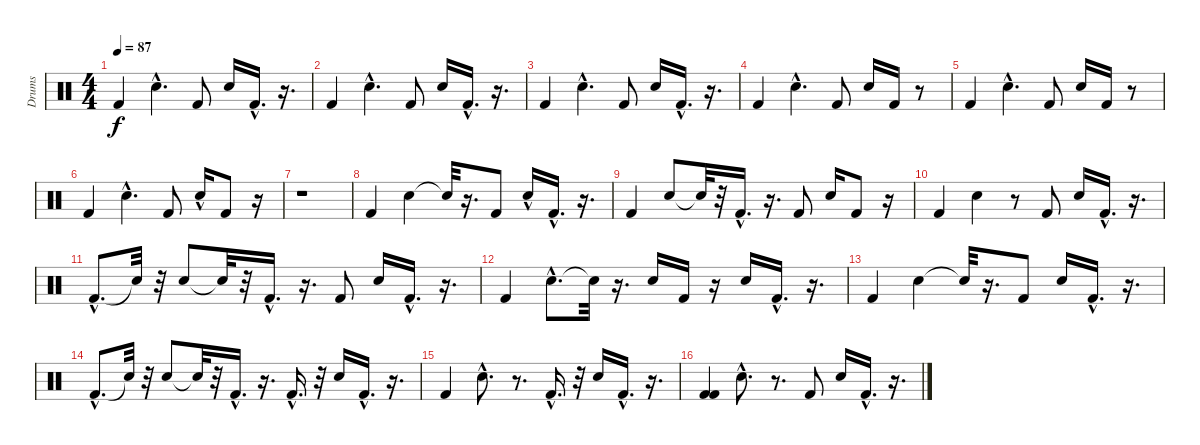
\track ("Drums" "Drums") {instrument percussion}
\staff {score}
\articulation defaults
\ts (4 4)
\tempo 87
\clef neutral
\ks c "Kick (hit) 2".4{dy f} "Electric Snare (hit)"{hac}.4{d} "Kick (hit) 2".8 "Electric Snare (hit)".16 "Kick (hit) 2"{hac}.16{d}
r.16{d} |
"Kick (hit) 2".4 "Electric Snare (hit)"{hac}.4{d} "Kick (hit) 2".8 "Electric Snare (hit)".16 "Kick (hit) 2"{hac}.16{d} r.16{d} |
"Kick (hit) 2".4 "Electric Snare (hit)"{hac}.4{d} "Kick (hit) 2".8 "Electric Snare (hit)".16 "Kick (hit) 2"{hac}.16{d} r.16{d} |
"Kick (hit) 2".4 "Electric Snare (hit)"{hac}.4{d} "Kick (hit) 2".8 "Electric Snare (hit)".16 "Kick (hit) 2".16 r.8 |
"Kick (hit) 2".4 "Electric Snare (hit)"{hac}.4{d} "Kick (hit) 2".8 "Electric Snare (hit)".16 "Kick (hit) 2".16 r.8 |
"Kick (hit) 2".4 "Electric Snare (hit)"{hac}.4{d} "Kick (hit) 2".8 "Electric Snare (hit)"{hac}.16 "Kick (hit) 2".8 r.16 |
r.1 |
"Kick (hit) 2".4 "Electric Snare (hit)".4 "Snare (hit)"{t}.32 r.16{d} "Kick (hit) 2".8 "Electric Snare (hit)"{hac}.16 "Kick (hit) 2"{hac}.16{d} r.16{d} |
"Kick (hit) 2".4 "Electric Snare (hit)".8 "Snare (hit)"{t}.32 r.32 "Kick (hit) 2"{hac}.16{d} r.16{d} "Kick (hit) 2".8 "Electric Snare (hit)".16 "Kick (hit) 2".8 r.16 |
"Kick (hit) 2".4 "Electric Snare (hit)".4 r.8 "Kick (hit) 2".8 "Electric Snare (hit)".16 "Kick (hit) 2"{hac}.16{d} r.16{d} |
"Kick (hit) 2"{hac}.8{d} "Snare (hit)"{t}.32 r.32 "Electric Snare (hit)".8 "Snare (hit)"{t}.32 r.32 "Kick (hit) 2"{hac}.16{d} r.16{d} "Kick (hit) 2".8 "Electric Snare (hit)".16 "Kick (hit) 2"{hac}.16{d} r.16{d} |
"Kick (hit) 2".4 "Electric Snare (hit)"{hac}.8{d} "Snare (hit)"{t}.32 r.16{d} "Electric Snare (hit)".16 "Kick (hit) 2".16 r.16 "Electric Snare (hit)".16 "Kick (hit) 2"{hac}.16{d} r.16{d} |
"Kick (hit) 2".4 "Electric Snare (hit)".4 "Snare (hit)"{t}.32 r.16{d} "Kick (hit) 2".8 "Electric Snare (hit)".16 "Kick (hit) 2"{hac}.16{d} r.16{d} |
"Kick (hit) 2"{hac}.8{d} "Snare (hit)"{t}.32 r.32 "Electric Snare (hit)".8 "Snare (hit)"{t}.32 r.32 "Kick (hit) 2"{hac}.16{d} r.16{d} "Kick (hit) 2"{hac}.16{d} r.32 "Electric Snare (hit)".16 "Kick (hit) 2"{hac}.16{d} r.16{d} |
"Kick (hit) 2".4 "Electric Snare (hit)"{hac}.8{d} r.8{d} "Kick (hit) 2"{hac}.16{d} r.32 "Electric Snare (hit)".16 "Kick (hit) 2"{hac}.16{d} r.16{d} |
("Kick (hit) 2" "Kick (hit) 2").4 "Electric Snare (hit)"{hac}.8{d} r.8{d} "Kick (hit) 2".8 "Electric Snare (hit)".16 "Kick (hit) 2"{hac}.16{d} r.16{d}
